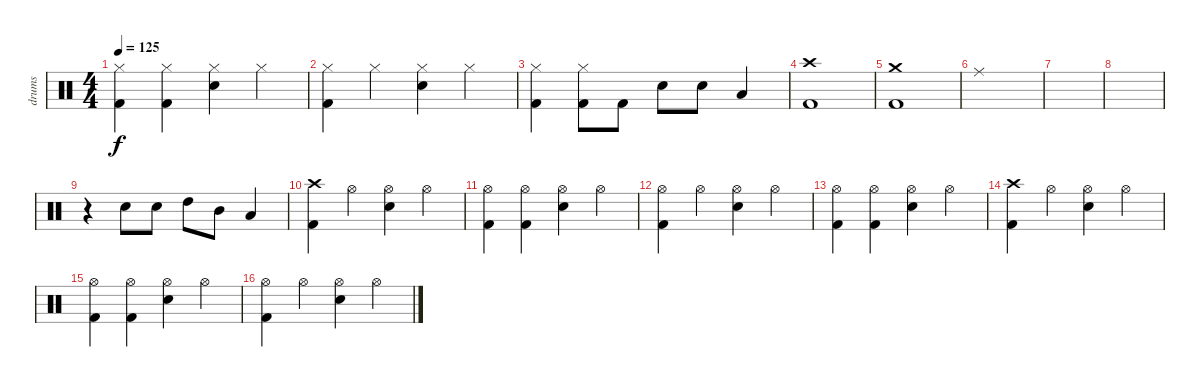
\track ("drums" "drums") {instrument percussion}
\staff {score}
\articulation defaults
\ts (4 4)
\tempo 125
\clef neutral
\ks c
("Kick (hit) 2" "Hi-Hat (closed)").4{dy f} ("Kick (hit) 2" "Hi-Hat (closed)").4 ("Hi-Hat (closed)" "Electric Snare (hit)").4 "Hi-Hat (closed)".4 |
("Kick (hit) 2" "Hi-Hat (closed)").4 "Hi-Hat (closed)".4 ("Hi-Hat (closed)" "Electric Snare (hit)").4 "Hi-Hat (closed)".4 |
("Kick (hit) 2" "Hi-Hat (closed)").4 ("Kick (hit) 2" "Hi-Hat (closed)").8 "Kick (hit) 2".8 "Electric Snare (hit)".8 "Electric Snare (hit)".8 "Low Floor Tom (hit)".4 |
("Kick (hit) 2" "Crash high (hit)").1 |
("Kick (hit) 2" "Crash medium (hit)").1 |
"Ride (middle)".1 |
|
|
r.4 "Electric Snare (hit)".8 "Electric Snare (hit)".8 "High Tom (hit)".8 "Mid Tom (hit)".8 "Low Tom (hit)".4 |
("Kick (hit) 2" "Crash high (hit)").4 "Hi-Hat (open)".4 ("Hi-Hat (open)" "Electric Snare (hit)").4 "Hi-Hat (open)".4 |
("Kick (hit) 2" "Hi-Hat (open)").4 ("Kick (hit) 2" "Hi-Hat (open)").4 ("Hi-Hat (open)" "Electric Snare (hit)").4 "Hi-Hat (open)".4 |
("Kick (hit) 2" "Hi-Hat (open)").4 "Hi-Hat (open)".4 ("Hi-Hat (open)" "Electric Snare (hit)").4 "Hi-Hat (open)".4 |
("Kick (hit) 2" "Hi-Hat (open)").4 ("Kick (hit) 2" "Hi-Hat (open)").4 ("Hi-Hat (open)" "Electric Snare (hit)").4 "Hi-Hat (open)".4 |
("Kick (hit) 2" "Crash high (hit)").4 "Hi-Hat (open)".4 ("Hi-Hat (open)" "Electric Snare (hit)").4 "Hi-Hat (open)".4 |
("Kick (hit) 2" "Hi-Hat (open)").4 ("Kick (hit) 2" "Hi-Hat (open)").4 ("Hi-Hat (open)" "Electric Snare (hit)").4 "Hi-Hat (open)".4 |
("Kick (hit) 2" "Hi-Hat (open)").4 "Hi-Hat (open)".4 ("Hi-Hat (open)" "Electric Snare (hit)").4 "Hi-Hat (open)".4
